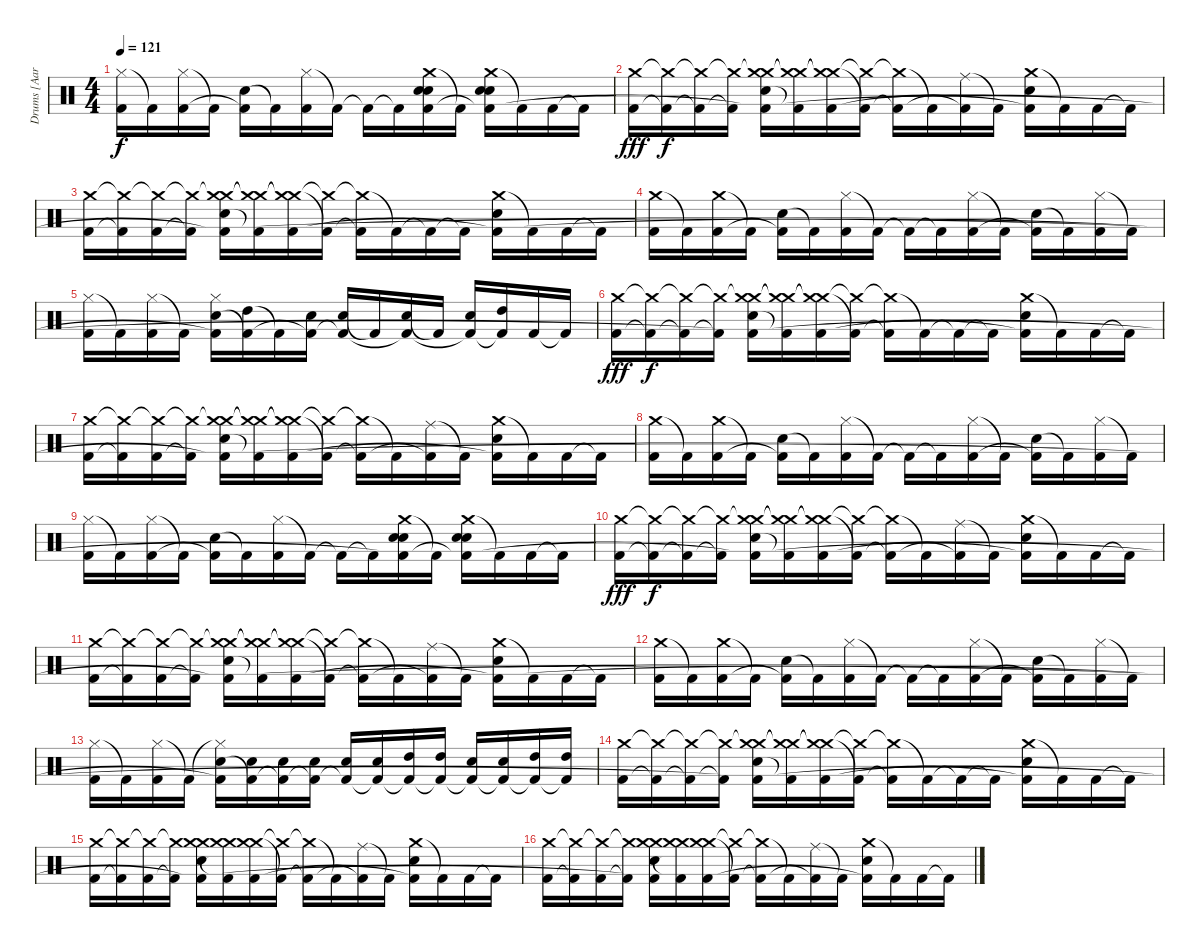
\track ("Drums [Aaron Harris]" "Drums [Aar") {instrument percussion}
\staff {score}
\articulation defaults
\ts (4 4)
\tempo 121
\clef neutral
\ks c
("Hi-Hat (closed)" "Kick (hit) 2").16{dy f} "Kick (hit) 2"{t}.16 ("Hi-Hat (closed)" "Kick (hit) 2").16 "Kick (hit) 2"{t}.16 ("Electric Snare (hit)" "Kick (hit) 2"{t}).16 "Kick (hit) 2"{t}.16 ("Hi-Hat (closed)" "Kick (hit) 2").16 "Kick (hit) 2"{t}.16 "Kick (hit) 2"{t}.16 "Kick (hit) 2"{t}.16 ("Crash medium (hit)" "Electric Snare (hit)" "Electric Snare (hit)" "Kick (hit) 2"{t}).16 "Kick (hit) 2"{t}.16 ("Crash medium (hit)" "Electric Snare (hit)" "Electric Snare (hit)" "Kick (hit) 2"{t}).16 "Kick (hit) 2"{t}.16 "Kick (hit) 2".16 "Kick (hit) 2"{t}.16 |
("Crash medium (hit)" "Kick (hit) 2").16{dy fff} ("Crash medium (hit)"{t} "Kick (hit) 2"{t}).16{dy f} ("Crash medium (hit)"{t} "Kick (hit) 2"{t}).16 ("Crash medium (hit)"{t} "Kick (hit) 2"{t}).16 ("Crash medium (hit)"{t} "Crash medium (hit)" "Electric Snare (hit)" "Kick (hit) 2"{t}).16 ("Crash medium (hit)"{t} "Crash medium (hit)"{t} "Kick (hit) 2"{t}).16 ("Crash medium (hit)"{t} "Crash medium (hit)"{t} "Kick (hit) 2").16 ("Crash medium (hit)"{t} "Kick (hit) 2"{t}).16 ("Crash medium (hit)"{t} "Kick (hit) 2"{t}).16 "Kick (hit) 2"{t}.16 ("Ride (middle)" "Kick (hit) 2"{t}).16 "Kick (hit) 2"{t}.16 ("Crash medium (hit)" "Electric Snare (hit)" "Kick (hit) 2"{t}).16 "Kick (hit) 2"{t}.16 "Kick (hit) 2".16 "Kick (hit) 2"{t}.16 |
("Crash medium (hit)" "Kick (hit) 2").16 ("Crash medium (hit)"{t} "Kick (hit) 2"{t}).16 ("Crash medium (hit)"{t} "Kick (hit) 2").16 ("Crash medium (hit)"{t} "Kick (hit) 2"{t}).16 ("Crash medium (hit)"{t} "Crash medium (hit)" "Electric Snare (hit)" "Kick (hit) 2"{t}).16 ("Crash medium (hit)"{t} "Crash medium (hit)"{t} "Kick (hit) 2"{t}).16 ("Crash medium (hit)"{t} "Crash medium (hit)"{t} "Kick (hit) 2").16 ("Crash medium (hit)"{t} "Kick (hit) 2"{t}).16 ("Crash medium (hit)"{t} "Kick (hit) 2"{t}).16 "Kick (hit) 2"{t}.16 "Kick (hit) 2"{t}.16 "Kick (hit) 2"{t}.16 ("Crash medium (hit)" "Electric Snare (hit)" "Kick (hit) 2"{t}).16 "Kick (hit) 2"{t}.16 "Kick (hit) 2".16 "Kick (hit) 2"{t}.16 |
("Crash medium (hit)" "Kick (hit) 2").16 "Kick (hit) 2"{t}.16 ("Crash medium (hit)" "Kick (hit) 2").16 "Kick (hit) 2"{t}.16 ("Electric Snare (hit)" "Kick (hit) 2"{t}).16 "Kick (hit) 2"{t}.16 ("Hi-Hat (closed)" "Kick (hit) 2").16 "Kick (hit) 2"{t}.16 "Kick (hit) 2"{t}.16 "Kick (hit) 2"{t}.16 ("Hi-Hat (closed)" "Kick (hit) 2").16 "Kick (hit) 2"{t}.16 ("Electric Snare (hit)" "Kick (hit) 2"{t}).16 "Kick (hit) 2"{t}.16 ("Hi-Hat (closed)" "Kick (hit) 2").16 "Kick (hit) 2"{t}.16 |
("Hi-Hat (closed)" "Kick (hit) 2").16 "Kick (hit) 2"{t}.16 ("Hi-Hat (closed)" "Kick (hit) 2").16 "Kick (hit) 2"{t}.16 ("Hi-Hat (closed)" "Electric Snare (hit)" "Kick (hit) 2"{t}).16 ("High Tom (hit)" "Kick (hit) 2"{t}).16 "Kick (hit) 2"{t}.16 ("Electric Snare (hit)" "Kick (hit) 2"{t}).16 ("Electric Snare (hit)" "Kick (hit) 2"{t}).16 "Kick (hit) 2"{t}.16 ("Electric Snare (hit)" "Kick (hit) 2"{t}).16 "Kick (hit) 2"{t}.16 ("Electric Snare (hit)" "Kick (hit) 2"{t}).16 ("High Tom (hit)" "Kick (hit) 2"{t}).16 "Kick (hit) 2".16 "Kick (hit) 2"{t}.16 |
("Crash medium (hit)" "Kick (hit) 2").16{dy fff} ("Crash medium (hit)"{t} "Kick (hit) 2"{t}).16{dy f} ("Crash medium (hit)"{t} "Kick (hit) 2"{t}).16 ("Crash medium (hit)"{t} "Kick (hit) 2"{t}).16 ("Crash medium (hit)"{t} "Crash medium (hit)" "Electric Snare (hit)" "Kick (hit) 2"{t}).16 ("Crash medium (hit)"{t} "Crash medium (hit)"{t} "Kick (hit) 2"{t}).16 ("Crash medium (hit)"{t} "Crash medium (hit)"{t} "Kick (hit) 2").16 ("Crash medium (hit)"{t} "Kick (hit) 2"{t}).16 ("Crash medium (hit)"{t} "Kick (hit) 2"{t}).16 "Kick (hit) 2"{t}.16 "Kick (hit) 2"{t}.16 "Kick (hit) 2"{t}.16 ("Crash medium (hit)" "Electric Snare (hit)" "Kick (hit) 2"{t}).16 "Kick (hit) 2"{t}.16 "Kick (hit) 2".16 "Kick (hit) 2"{t}.16 |
("Crash medium (hit)" "Kick (hit) 2").16 ("Crash medium (hit)"{t} "Kick (hit) 2"{t}).16 ("Crash medium (hit)"{t} "Kick (hit) 2").16 ("Crash medium (hit)"{t} "Kick (hit) 2"{t}).16 ("Crash medium (hit)"{t} "Crash medium (hit)" "Electric Snare (hit)" "Kick (hit) 2"{t}).16 ("Crash medium (hit)"{t} "Crash medium (hit)"{t} "Kick (hit) 2"{t}).16 ("Crash medium (hit)"{t} "Crash medium (hit)"{t} "Kick (hit) 2").16 ("Crash medium (hit)"{t} "Kick (hit) 2"{t}).16 ("Crash medium (hit)"{t} "Kick (hit) 2"{t}).16 "Kick (hit) 2"{t}.16 ("Ride (middle)" "Kick (hit) 2"{t}).16 "Kick (hit) 2"{t}.16 ("Crash medium (hit)" "Electric Snare (hit)" "Kick (hit) 2"{t}).16 "Kick (hit) 2"{t}.16 "Kick (hit) 2".16 "Kick (hit) 2"{t}.16 |
("Crash medium (hit)" "Kick (hit) 2").16 "Kick (hit) 2"{t}.16 ("Crash medium (hit)" "Kick (hit) 2").16 "Kick (hit) 2"{t}.16 ("Electric Snare (hit)" "Kick (hit) 2"{t}).16 "Kick (hit) 2"{t}.16 ("Hi-Hat (closed)" "Kick (hit) 2").16 "Kick (hit) 2"{t}.16 "Kick (hit) 2"{t}.16 "Kick (hit) 2"{t}.16 ("Hi-Hat (closed)" "Kick (hit) 2").16 "Kick (hit) 2"{t}.16 ("Electric Snare (hit)" "Kick (hit) 2"{t}).16 "Kick (hit) 2"{t}.16 ("Hi-Hat (closed)" "Kick (hit) 2").16 "Kick (hit) 2"{t}.16 |
("Hi-Hat (closed)" "Kick (hit) 2").16 "Kick (hit) 2"{t}.16 ("Hi-Hat (closed)" "Kick (hit) 2").16 "Kick (hit) 2"{t}.16 ("Electric Snare (hit)" "Kick (hit) 2"{t}).16 "Kick (hit) 2"{t}.16 ("Hi-Hat (closed)" "Kick (hit) 2").16 "Kick (hit) 2"{t}.16 "Kick (hit) 2"{t}.16 "Kick (hit) 2"{t}.16 ("Crash medium (hit)" "Electric Snare (hit)" "Electric Snare (hit)" "Kick (hit) 2"{t}).16 "Kick (hit) 2"{t}.16 ("Crash medium (hit)" "Electric Snare (hit)" "Electric Snare (hit)" "Kick (hit) 2"{t}).16 "Kick (hit) 2"{t}.16 "Kick (hit) 2".16 "Kick (hit) 2"{t}.16 |
("Crash medium (hit)" "Kick (hit) 2").16{dy fff} ("Crash medium (hit)"{t} "Kick (hit) 2"{t}).16{dy f} ("Crash medium (hit)"{t} "Kick (hit) 2"{t}).16 ("Crash medium (hit)"{t} "Kick (hit) 2"{t}).16 ("Crash medium (hit)"{t} "Crash medium (hit)" "Electric Snare (hit)" "Kick (hit) 2"{t}).16 ("Crash medium (hit)"{t} "Crash medium (hit)"{t} "Kick (hit) 2"{t}).16 ("Crash medium (hit)"{t} "Crash medium (hit)"{t} "Kick (hit) 2").16 ("Crash medium (hit)"{t} "Kick (hit) 2"{t}).16 ("Crash medium (hit)"{t} "Kick (hit) 2"{t}).16 "Kick (hit) 2"{t}.16 ("Ride (middle)" "Kick (hit) 2"{t}).16 "Kick (hit) 2"{t}.16 ("Crash medium (hit)" "Electric Snare (hit)" "Kick (hit) 2"{t}).16 "Kick (hit) 2"{t}.16 "Kick (hit) 2".16 "Kick (hit) 2"{t}.16 |
("Crash medium (hit)" "Kick (hit) 2").16 ("Crash medium (hit)"{t} "Kick (hit) 2"{t}).16 ("Crash medium (hit)"{t} "Kick (hit) 2").16 ("Crash medium (hit)"{t} "Kick (hit) 2"{t}).16 ("Crash medium (hit)"{t} "Crash medium (hit)" "Electric Snare (hit)" "Kick (hit) 2"{t}).16 ("Crash medium (hit)"{t} "Crash medium (hit)"{t} "Kick (hit) 2"{t}).16 ("Crash medium (hit)"{t} "Crash medium (hit)"{t} "Kick (hit) 2").16 ("Crash medium (hit)"{t} "Kick (hit) 2"{t}).16 ("Crash medium (hit)"{t} "Kick (hit) 2"{t}).16 "Kick (hit) 2"{t}.16 ("Ride (middle)" "Kick (hit) 2"{t}).16 "Kick (hit) 2"{t}.16 ("Crash medium (hit)" "Electric Snare (hit)" "Kick (hit) 2"{t}).16 "Kick (hit) 2"{t}.16 "Kick (hit) 2".16 "Kick (hit) 2"{t}.16 |
("Crash medium (hit)" "Kick (hit) 2").16 "Kick (hit) 2"{t}.16 ("Crash medium (hit)" "Kick (hit) 2").16 "Kick (hit) 2"{t}.16 ("Electric Snare (hit)" "Kick (hit) 2"{t}).16 "Kick (hit) 2"{t}.16 ("Hi-Hat (closed)" "Kick (hit) 2").16 "Kick (hit) 2"{t}.16 "Kick (hit) 2"{t}.16 "Kick (hit) 2"{t}.16 ("Hi-Hat (closed)" "Kick (hit) 2").16 "Kick (hit) 2"{t}.16 ("Electric Snare (hit)" "Kick (hit) 2"{t}).16 "Kick (hit) 2"{t}.16 ("Hi-Hat (closed)" "Kick (hit) 2").16 "Kick (hit) 2"{t}.16 |
("Hi-Hat (closed)" "Kick (hit) 2").16 "Kick (hit) 2"{t}.16 ("Hi-Hat (closed)" "Kick (hit) 2").16 "Kick (hit) 2"{t}.16 ("Hi-Hat (closed)"{t} "Electric Snare (hit)" "Kick (hit) 2"{t}).16 ("Electric Snare (hit)" "Kick (hit) 2"{t}).16 ("Electric Snare (hit)" "Kick (hit) 2"{t}).16 ("Electric Snare (hit)" "Kick (hit) 2"{t}).16 ("Electric Snare (hit)" "Kick (hit) 2"{t}).16 ("Electric Snare (hit)" "Kick (hit) 2"{t}).16 ("High Tom (hit)" "Kick (hit) 2"{t}).16 ("High Tom (hit)" "Kick (hit) 2"{t}).16 ("Electric Snare (hit)" "Kick (hit) 2"{t}).16 ("Electric Snare (hit)" "Kick (hit) 2"{t}).16 ("High Tom (hit)" "Kick (hit) 2"{t}).16 ("High Tom (hit)" "Kick (hit) 2"{t}).16 |
("Crash medium (hit)" "Kick (hit) 2").16 ("Crash medium (hit)"{t} "Kick (hit) 2"{t}).16 ("Crash medium (hit)"{t} "Kick (hit) 2"{t}).16 ("Crash medium (hit)"{t} "Kick (hit) 2"{t}).16 ("Crash medium (hit)"{t} "Crash medium (hit)" "Electric Snare (hit)" "Kick (hit) 2"{t}).16 ("Crash medium (hit)"{t} "Crash medium (hit)"{t} "Kick (hit) 2"{t}).16 ("Crash medium (hit)"{t} "Crash medium (hit)"{t} "Kick (hit) 2").16 ("Crash medium (hit)"{t} "Kick (hit) 2"{t}).16 ("Crash medium (hit)"{t} "Kick (hit) 2"{t}).16 "Kick (hit) 2"{t}.16 "Kick (hit) 2"{t}.16 "Kick (hit) 2"{t}.16 ("Crash medium (hit)" "Electric Snare (hit)" "Kick (hit) 2"{t}).16 "Kick (hit) 2"{t}.16 "Kick (hit) 2".16 "Kick (hit) 2"{t}.16 |
("Crash medium (hit)" "Kick (hit) 2").16 ("Crash medium (hit)"{t} "Kick (hit) 2"{t}).16 ("Crash medium (hit)"{t} "Kick (hit) 2").16 ("Crash medium (hit)"{t} "Kick (hit) 2"{t}).16 ("Crash medium (hit)"{t} "Crash medium (hit)" "Electric Snare (hit)" "Kick (hit) 2"{t}).16 ("Crash medium (hit)"{t} "Crash medium (hit)"{t} "Kick (hit) 2"{t}).16 ("Crash medium (hit)"{t} "Crash medium (hit)"{t} "Kick (hit) 2").16 ("Crash medium (hit)"{t} "Kick (hit) 2"{t}).16 ("Crash medium (hit)"{t} "Kick (hit) 2"{t}).16 "Kick (hit) 2"{t}.16 ("Ride (middle)" "Kick (hit) 2"{t}).16 "Kick (hit) 2"{t}.16 ("Crash medium (hit)" "Electric Snare (hit)" "Kick (hit) 2"{t}).16 "Kick (hit) 2"{t}.16 "Kick (hit) 2".16 "Kick (hit) 2"{t}.16 |
("Crash medium (hit)" "Kick (hit) 2").16 ("Crash medium (hit)"{t} "Kick (hit) 2"{t}).16 ("Crash medium (hit)"{t} "Kick (hit) 2").16 ("Crash medium (hit)"{t} "Kick (hit) 2"{t}).16 ("Crash medium (hit)"{t} "Crash medium (hit)" "Electric Snare (hit)" "Kick (hit) 2"{t}).16 ("Crash medium (hit)"{t} "Crash medium (hit)"{t} "Kick (hit) 2"{t}).16 ("Crash medium (hit)"{t} "Crash medium (hit)"{t} "Kick (hit) 2").16 ("Crash medium (hit)"{t} "Kick (hit) 2"{t}).16 ("Crash medium (hit)"{t} "Kick (hit) 2"{t}).16 "Kick (hit) 2"{t}.16 ("Ride (middle)" "Kick (hit) 2"{t}).16 "Kick (hit) 2"{t}.16 ("Crash medium (hit)" "Electric Snare (hit)" "Kick (hit) 2"{t}).16 "Kick (hit) 2"{t}.16 "Kick (hit) 2".16 "Kick (hit) 2"{t}.16
